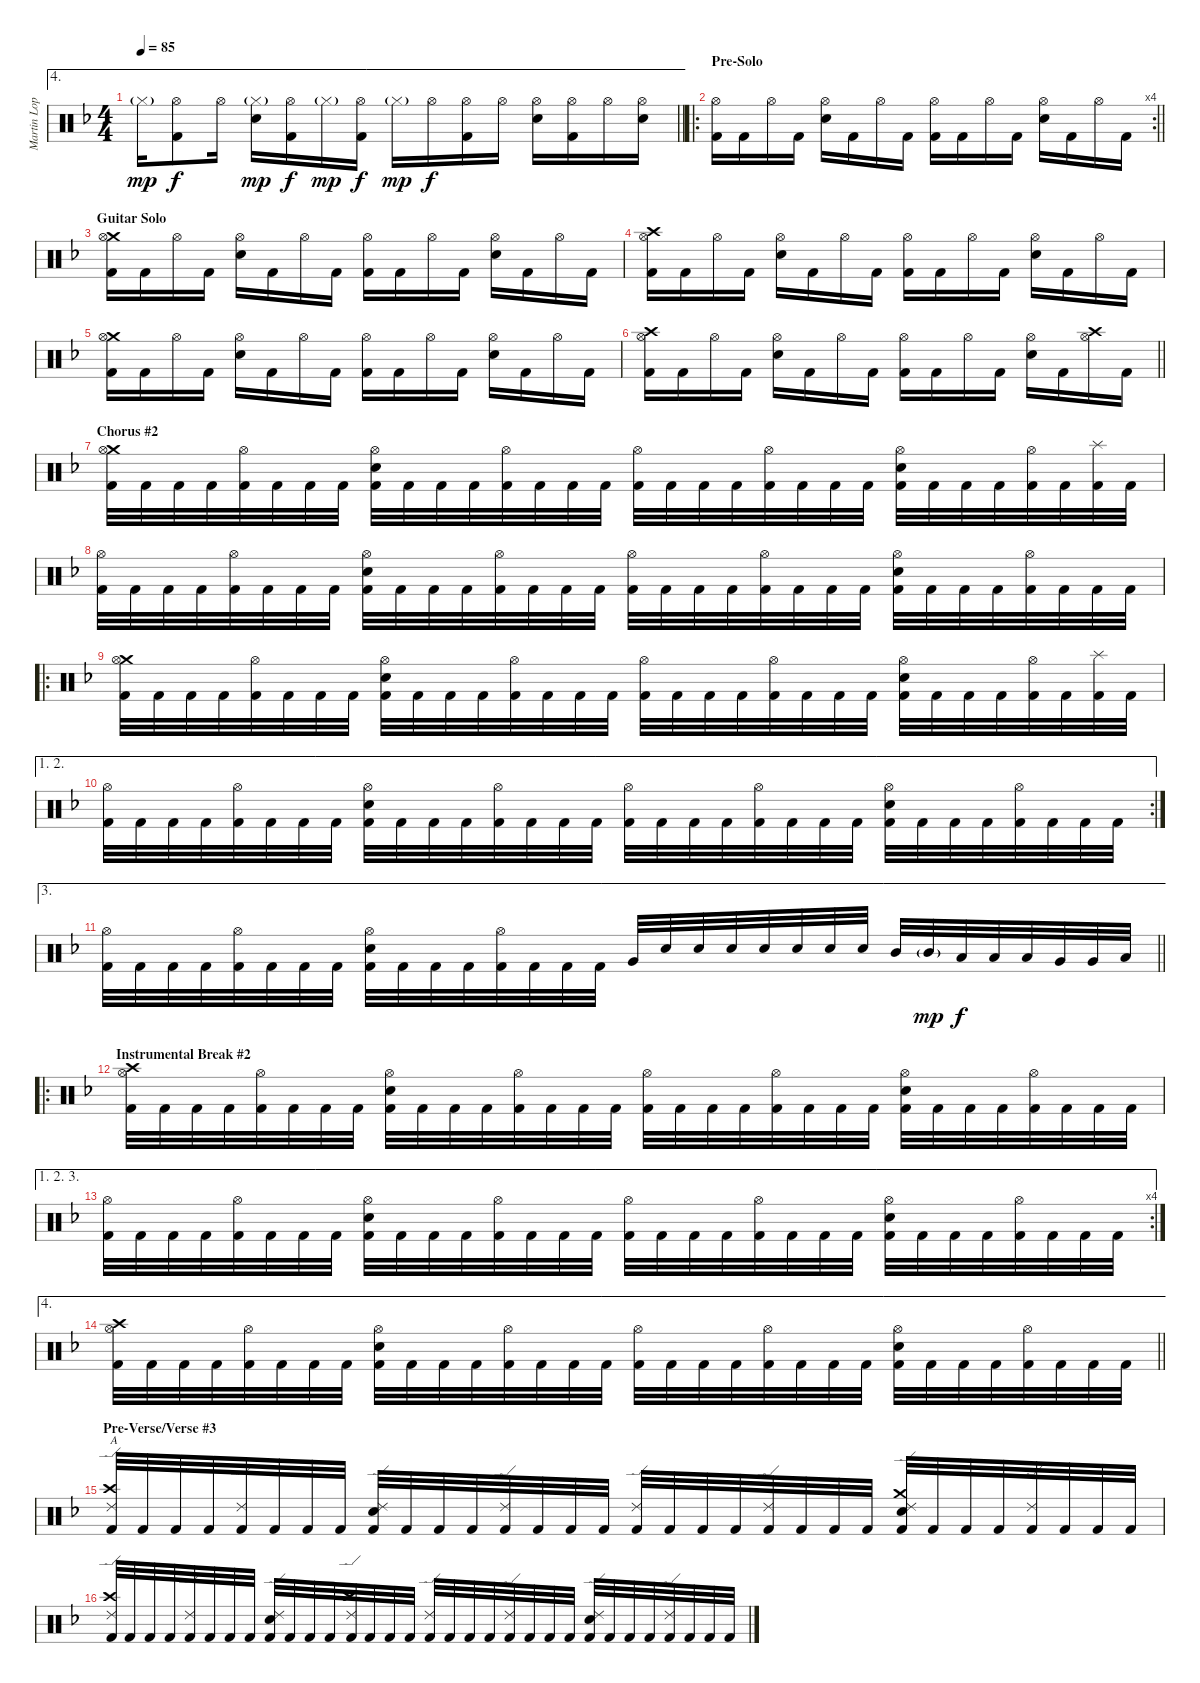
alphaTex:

\track ("Martin Lopez - Drums" "Martin Lop") {instrument percussion}
\staff {score}
\articulation defaults
\ae 4
\ts (4 4)
\tempo 85
\clef neutral
\barLineRight lightlight
\ks f "Hi-Hat (closed)"{g}.16{dy mp}
("Hi-Hat (open)" "Kick (hit) 2").8{dy f} "Hi-Hat (open)".16 ("Hi-Hat (closed)"{g} "Electric Snare (hit)").16{dy mp} ("Hi-Hat (open)" "Kick (hit) 2").16{dy f} "Hi-Hat (closed)"{g}.16{dy mp} ("Hi-Hat (open)" "Kick (hit) 2").16{dy f} "Hi-Hat (closed)"{g}.16{dy mp} "Hi-Hat (open)".16{dy f} ("Hi-Hat (open)" "Kick (hit) 2").16 "Hi-Hat (open)".16 ("Hi-Hat (open)" "Electric Snare (hit)").16 ("Hi-Hat (open)" "Kick (hit) 2").16 "Hi-Hat (open)".16 ("Hi-Hat (open)" "Electric Snare (hit)").16 |
\ro
\rc 4
\section ("" "Pre-Solo")
\barLineRight lightlight
("Hi-Hat (open)" "Kick (hit) 2").16 "Kick (hit) 2".16 "Hi-Hat (open)".16 "Kick (hit) 2".16 ("Hi-Hat (open)" "Electric Snare (hit)").16 "Kick (hit) 2".16 "Hi-Hat (open)".16 "Kick (hit) 2".16 ("Hi-Hat (open)" "Kick (hit) 2").16 "Kick (hit) 2".16 "Hi-Hat (open)".16 "Kick (hit) 2".16 ("Hi-Hat (open)" "Electric Snare (hit)").16 "Kick (hit) 2".16 "Hi-Hat (open)".16 "Kick (hit) 2".16 |
\section ("" "Guitar Solo")
("Crash medium (hit)" "Hi-Hat (open)" "Kick (hit) 2").16 "Kick (hit) 2".16 "Hi-Hat (open)".16 "Kick (hit) 2".16 ("Hi-Hat (open)" "Electric Snare (hit)").16 "Kick (hit) 2".16 "Hi-Hat (open)".16 "Kick (hit) 2".16 ("Hi-Hat (open)" "Kick (hit) 2").16 "Kick (hit) 2".16 "Hi-Hat (open)".16 "Kick (hit) 2".16 ("Hi-Hat (open)" "Electric Snare (hit)").16 "Kick (hit) 2".16 "Hi-Hat (open)".16 "Kick (hit) 2".16 |
("Crash high (hit)" "Hi-Hat (open)" "Kick (hit) 2").16 "Kick (hit) 2".16 "Hi-Hat (open)".16 "Kick (hit) 2".16 ("Hi-Hat (open)" "Electric Snare (hit)").16 "Kick (hit) 2".16 "Hi-Hat (open)".16 "Kick (hit) 2".16 ("Hi-Hat (open)" "Kick (hit) 2").16 "Kick (hit) 2".16 "Hi-Hat (open)".16 "Kick (hit) 2".16 ("Hi-Hat (open)" "Electric Snare (hit)").16 "Kick (hit) 2".16 "Hi-Hat (open)".16 "Kick (hit) 2".16 |
("Crash medium (hit)" "Hi-Hat (open)" "Kick (hit) 2").16 "Kick (hit) 2".16 "Hi-Hat (open)".16 "Kick (hit) 2".16 ("Hi-Hat (open)" "Electric Snare (hit)").16 "Kick (hit) 2".16 "Hi-Hat (open)".16 "Kick (hit) 2".16 ("Hi-Hat (open)" "Kick (hit) 2").16 "Kick (hit) 2".16 "Hi-Hat (open)".16 "Kick (hit) 2".16 ("Hi-Hat (open)" "Electric Snare (hit)").16 "Kick (hit) 2".16 "Hi-Hat (open)".16 "Kick (hit) 2".16 |
\barLineRight lightlight
("Crash high (hit)" "Hi-Hat (open)" "Kick (hit) 2").16 "Kick (hit) 2".16 "Hi-Hat (open)".16 "Kick (hit) 2".16 ("Hi-Hat (open)" "Electric Snare (hit)").16 "Kick (hit) 2".16 "Hi-Hat (open)".16 "Kick (hit) 2".16 ("Hi-Hat (open)" "Kick (hit) 2").16 "Kick (hit) 2".16 "Hi-Hat (open)".16 "Kick (hit) 2".16 ("Hi-Hat (open)" "Electric Snare (hit)").16 "Kick (hit) 2".16 ("Crash high (hit)" "Hi-Hat (open)").16 "Kick (hit) 2".16 |
\section ("" "Chorus #2")
("Crash medium (hit)" "Hi-Hat (open)" "Kick (hit) 2").32 "Kick (hit) 2".32 "Kick (hit) 2".32 "Kick (hit) 2".32 ("Hi-Hat (open)" "Kick (hit) 2").32 "Kick (hit) 2".32 "Kick (hit) 2".32 "Kick (hit) 2".32 ("Hi-Hat (open)" "Electric Snare (hit)" "Kick (hit) 2").32 "Kick (hit) 2".32 "Kick (hit) 2".32 "Kick (hit) 2".32 ("Hi-Hat (open)" "Kick (hit) 2").32 "Kick (hit) 2".32 "Kick (hit) 2".32 "Kick (hit) 2".32 ("Hi-Hat (open)" "Kick (hit) 2").32 "Kick (hit) 2".32 "Kick (hit) 2".32 "Kick (hit) 2".32 ("Hi-Hat (open)" "Kick (hit) 2").32 "Kick (hit) 2".32 "Kick (hit) 2".32 "Kick (hit) 2".32 ("Hi-Hat (open)" "Electric Snare (hit)" "Kick (hit) 2").32 "Kick (hit) 2".32 "Kick (hit) 2".32 "Kick (hit) 2".32 ("Hi-Hat (open)" "Kick (hit) 2").32 "Kick (hit) 2".32 ("Splash (hit)" "Kick (hit) 2").32 "Kick (hit) 2".32 |
("Hi-Hat (open)" "Kick (hit) 2").32 "Kick (hit) 2".32 "Kick (hit) 2".32 "Kick (hit) 2".32 ("Hi-Hat (open)" "Kick (hit) 2").32 "Kick (hit) 2".32 "Kick (hit) 2".32 "Kick (hit) 2".32 ("Hi-Hat (open)" "Electric Snare (hit)" "Kick (hit) 2").32 "Kick (hit) 2".32 "Kick (hit) 2".32 "Kick (hit) 2".32 ("Hi-Hat (open)" "Kick (hit) 2").32 "Kick (hit) 2".32 "Kick (hit) 2".32 "Kick (hit) 2".32 ("Hi-Hat (open)" "Kick (hit) 2").32 "Kick (hit) 2".32 "Kick (hit) 2".32 "Kick (hit) 2".32 ("Hi-Hat (open)" "Kick (hit) 2").32 "Kick (hit) 2".32 "Kick (hit) 2".32 "Kick (hit) 2".32 ("Hi-Hat (open)" "Electric Snare (hit)" "Kick (hit) 2").32 "Kick (hit) 2".32 "Kick (hit) 2".32 "Kick (hit) 2".32 ("Hi-Hat (open)" "Kick (hit) 2").32 "Kick (hit) 2".32 "Kick (hit) 2".32 "Kick (hit) 2".32 |
\ro
("Crash medium (hit)" "Hi-Hat (open)" "Kick (hit) 2").32 "Kick (hit) 2".32 "Kick (hit) 2".32 "Kick (hit) 2".32 ("Hi-Hat (open)" "Kick (hit) 2").32 "Kick (hit) 2".32 "Kick (hit) 2".32 "Kick (hit) 2".32 ("Hi-Hat (open)" "Electric Snare (hit)" "Kick (hit) 2").32 "Kick (hit) 2".32 "Kick (hit) 2".32 "Kick (hit) 2".32 ("Hi-Hat (open)" "Kick (hit) 2").32 "Kick (hit) 2".32 "Kick (hit) 2".32 "Kick (hit) 2".32 ("Hi-Hat (open)" "Kick (hit) 2").32 "Kick (hit) 2".32 "Kick (hit) 2".32 "Kick (hit) 2".32 ("Hi-Hat (open)" "Kick (hit) 2").32 "Kick (hit) 2".32 "Kick (hit) 2".32 "Kick (hit) 2".32 ("Hi-Hat (open)" "Electric Snare (hit)" "Kick (hit) 2").32 "Kick (hit) 2".32 "Kick (hit) 2".32 "Kick (hit) 2".32 ("Hi-Hat (open)" "Kick (hit) 2").32 "Kick (hit) 2".32 ("Splash (hit)" "Kick (hit) 2").32 "Kick (hit) 2".32 |
\ae (1 2)
\rc 2
("Hi-Hat (open)" "Kick (hit) 2").32 "Kick (hit) 2".32 "Kick (hit) 2".32 "Kick (hit) 2".32 ("Hi-Hat (open)" "Kick (hit) 2").32 "Kick (hit) 2".32 "Kick (hit) 2".32 "Kick (hit) 2".32 ("Hi-Hat (open)" "Electric Snare (hit)" "Kick (hit) 2").32 "Kick (hit) 2".32 "Kick (hit) 2".32 "Kick (hit) 2".32 ("Hi-Hat (open)" "Kick (hit) 2").32 "Kick (hit) 2".32 "Kick (hit) 2".32 "Kick (hit) 2".32 ("Hi-Hat (open)" "Kick (hit) 2").32 "Kick (hit) 2".32 "Kick (hit) 2".32 "Kick (hit) 2".32 ("Hi-Hat (open)" "Kick (hit) 2").32 "Kick (hit) 2".32 "Kick (hit) 2".32 "Kick (hit) 2".32 ("Hi-Hat (open)" "Electric Snare (hit)" "Kick (hit) 2").32 "Kick (hit) 2".32 "Kick (hit) 2".32 "Kick (hit) 2".32 ("Hi-Hat (open)" "Kick (hit) 2").32 "Kick (hit) 2".32 "Kick (hit) 2".32 "Kick (hit) 2".32 |
\ae 3
\barLineRight lightlight
("Hi-Hat (open)" "Kick (hit) 2").32 "Kick (hit) 2".32 "Kick (hit) 2".32 "Kick (hit) 2".32 ("Hi-Hat (open)" "Kick (hit) 2").32 "Kick (hit) 2".32 "Kick (hit) 2".32 "Kick (hit) 2".32 ("Hi-Hat (open)" "Electric Snare (hit)" "Kick (hit) 2").32 "Kick (hit) 2".32 "Kick (hit) 2".32 "Kick (hit) 2".32 ("Hi-Hat (open)" "Kick (hit) 2").32 "Kick (hit) 2".32 "Kick (hit) 2".32 "Kick (hit) 2".32 "Very Low Tom (hit)".32 "Electric Snare (hit)".32 "Electric Snare (hit)".32 "Electric Snare (hit)".32 "Electric Snare (hit)".32 "Electric Snare (hit)".32 "Electric Snare (hit)".32 "Electric Snare (hit)".32 "Mid Tom (hit)".32 "Mid Tom (hit)"{g}.32{dy mp} "Low Tom (hit)".32{dy f} "Low Tom (hit)".32 "Low Tom (hit)".32 "Very Low Tom (hit)".32 "Very Low Tom (hit)".32 "Low Floor Tom (hit)".32 |
\ro
\section ("" "Instrumental Break #2")
("Crash high (hit)" "Hi-Hat (open)" "Kick (hit) 2").32 "Kick (hit) 2".32 "Kick (hit) 2".32 "Kick (hit) 2".32 ("Hi-Hat (open)" "Kick (hit) 2").32 "Kick (hit) 2".32 "Kick (hit) 2".32 "Kick (hit) 2".32 ("Hi-Hat (open)" "Electric Snare (hit)" "Kick (hit) 2").32 "Kick (hit) 2".32 "Kick (hit) 2".32 "Kick (hit) 2".32 ("Hi-Hat (open)" "Kick (hit) 2").32 "Kick (hit) 2".32 "Kick (hit) 2".32 "Kick (hit) 2".32 ("Hi-Hat (open)" "Kick (hit) 2").32 "Kick (hit) 2".32 "Kick (hit) 2".32 "Kick (hit) 2".32 ("Hi-Hat (open)" "Kick (hit) 2").32 "Kick (hit) 2".32 "Kick (hit) 2".32 "Kick (hit) 2".32 ("Hi-Hat (open)" "Electric Snare (hit)" "Kick (hit) 2").32 "Kick (hit) 2".32 "Kick (hit) 2".32 "Kick (hit) 2".32 ("Hi-Hat (open)" "Kick (hit) 2").32 "Kick (hit) 2".32 "Kick (hit) 2".32 "Kick (hit) 2".32 |
\ae (1 2 3)
\rc 4
("Hi-Hat (open)" "Kick (hit) 2").32 "Kick (hit) 2".32 "Kick (hit) 2".32 "Kick (hit) 2".32 ("Hi-Hat (open)" "Kick (hit) 2").32 "Kick (hit) 2".32 "Kick (hit) 2".32 "Kick (hit) 2".32 ("Hi-Hat (open)" "Electric Snare (hit)" "Kick (hit) 2").32 "Kick (hit) 2".32 "Kick (hit) 2".32 "Kick (hit) 2".32 ("Hi-Hat (open)" "Kick (hit) 2").32 "Kick (hit) 2".32 "Kick (hit) 2".32 "Kick (hit) 2".32 ("Hi-Hat (open)" "Kick (hit) 2").32 "Kick (hit) 2".32 "Kick (hit) 2".32 "Kick (hit) 2".32 ("Hi-Hat (open)" "Kick (hit) 2").32 "Kick (hit) 2".32 "Kick (hit) 2".32 "Kick (hit) 2".32 ("Hi-Hat (open)" "Electric Snare (hit)" "Kick (hit) 2").32 "Kick (hit) 2".32 "Kick (hit) 2".32 "Kick (hit) 2".32 ("Hi-Hat (open)" "Kick (hit) 2").32 "Kick (hit) 2".32 "Kick (hit) 2".32 "Kick (hit) 2".32 |
\ae 4
\barLineRight lightlight
("Crash high (hit)" "Hi-Hat (open)" "Kick (hit) 2").32 "Kick (hit) 2".32 "Kick (hit) 2".32 "Kick (hit) 2".32 ("Hi-Hat (open)" "Kick (hit) 2").32 "Kick (hit) 2".32 "Kick (hit) 2".32 "Kick (hit) 2".32 ("Hi-Hat (open)" "Electric Snare (hit)" "Kick (hit) 2").32 "Kick (hit) 2".32 "Kick (hit) 2".32 "Kick (hit) 2".32 ("Hi-Hat (open)" "Kick (hit) 2").32 "Kick (hit) 2".32 "Kick (hit) 2".32 "Kick (hit) 2".32 ("Hi-Hat (open)" "Kick (hit) 2").32 "Kick (hit) 2".32 "Kick (hit) 2".32 "Kick (hit) 2".32 ("Hi-Hat (open)" "Kick (hit) 2").32 "Kick (hit) 2".32 "Kick (hit) 2".32 "Kick (hit) 2".32 ("Hi-Hat (open)" "Electric Snare (hit)" "Kick (hit) 2").32 "Kick (hit) 2".32 "Kick (hit) 2".32 "Kick (hit) 2".32 ("Hi-Hat (open)" "Kick (hit) 2").32 "Kick (hit) 2".32 "Kick (hit) 2".32 "Kick (hit) 2".32 |
\section ("" "Pre-Verse/Verse #3")
("Crash high (hit)" "Ride (edge) 2" "Kick (hit) 2").32{txt "A"} "Kick (hit) 2".32 "Kick (hit) 2".32 "Kick (hit) 2".32 ("Ride (edge) 2" "Kick (hit) 2").32 "Kick (hit) 2".32 "Kick (hit) 2".32 "Kick (hit) 2".32 ("Ride (edge) 2" "Electric Snare (hit)" "Kick (hit) 2").32 "Kick (hit) 2".32 "Kick (hit) 2".32 "Kick (hit) 2".32 ("Ride (edge) 2" "Kick (hit) 2").32 "Kick (hit) 2".32 "Kick (hit) 2".32 "Kick (hit) 2".32 ("Ride (edge) 2" "Kick (hit) 2").32 "Kick (hit) 2".32 "Kick (hit) 2".32 "Kick (hit) 2".32 ("Ride (edge) 2" "Kick (hit) 2").32 "Kick (hit) 2".32 "Kick (hit) 2".32 "Kick (hit) 2".32 ("Crash medium (hit)" "Ride (edge) 2" "Electric Snare (hit)" "Kick (hit) 2").32 "Kick (hit) 2".32 "Kick (hit) 2".32 "Kick (hit) 2".32 ("Ride (edge) 2" "Kick (hit) 2").32 "Kick (hit) 2".32 "Kick (hit) 2".32 "Kick (hit) 2".32 |
("Crash high (hit)" "Ride (edge) 2" "Kick (hit) 2").32 "Kick (hit) 2".32 "Kick (hit) 2".32 "Kick (hit) 2".32 ("Ride (edge) 2" "Kick (hit) 2").32 "Kick (hit) 2".32 "Kick (hit) 2".32 "Kick (hit) 2".32 ("Ride (edge) 2" "Electric Snare (hit)" "Kick (hit) 2").32 "Kick (hit) 2".32 "Kick (hit) 2".32 "Kick (hit) 2".32 ("Crash high (hit)" "Ride (edge) 2" "Kick (hit) 2").32 "Kick (hit) 2".32 "Kick (hit) 2".32 "Kick (hit) 2".32 ("Ride (edge) 2" "Kick (hit) 2").32 "Kick (hit) 2".32 "Kick (hit) 2".32 "Kick (hit) 2".32 ("Ride (edge) 2" "Kick (hit) 2").32 "Kick (hit) 2".32 "Kick (hit) 2".32 "Kick (hit) 2".32 ("Ride (edge) 2" "Electric Snare (hit)" "Kick (hit) 2").32 "Kick (hit) 2".32 "Kick (hit) 2".32 "Kick (hit) 2".32 ("Ride (edge) 2" "Kick (hit) 2").32 "Kick (hit) 2".32 "Kick (hit) 2".32 "Kick (hit) 2".32
